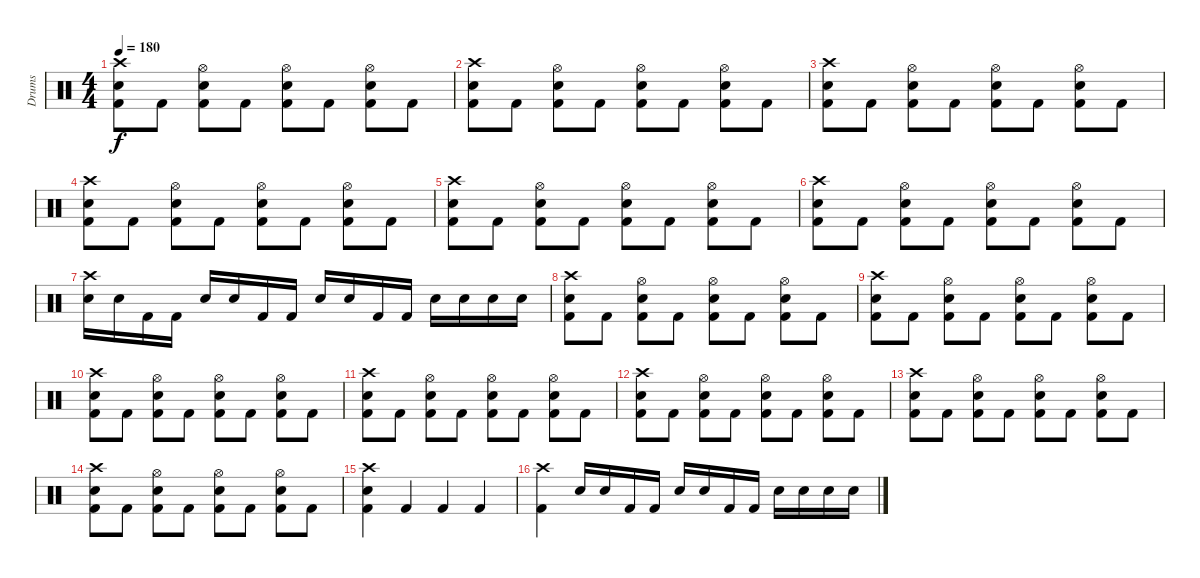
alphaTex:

\track ("Drums" "Drums") {instrument percussion}
\staff {score}
\articulation defaults
\ts (4 4)
\tempo 180
\clef neutral
\ks c
("Crash high (hit)" "Snare (hit) 2" "Kick (hit) 2").8{dy f} "Kick (hit) 2".8 ("Hi-Hat (open)" "Snare (hit) 2" "Kick (hit) 2").8 "Kick (hit) 2".8 ("Hi-Hat (open)" "Snare (hit) 2" "Kick (hit) 2").8 "Kick (hit) 2".8 ("Hi-Hat (open)" "Snare (hit) 2" "Kick (hit) 2").8 "Kick (hit) 2".8 |
("Crash high (hit)" "Snare (hit) 2" "Kick (hit) 2").8 "Kick (hit) 2".8 ("Hi-Hat (open)" "Snare (hit) 2" "Kick (hit) 2").8 "Kick (hit) 2".8 ("Hi-Hat (open)" "Snare (hit) 2" "Kick (hit) 2").8 "Kick (hit) 2".8 ("Hi-Hat (open)" "Snare (hit) 2" "Kick (hit) 2").8 "Kick (hit) 2".8 |
("Crash high (hit)" "Snare (hit) 2" "Kick (hit) 2").8 "Kick (hit) 2".8 ("Hi-Hat (open)" "Snare (hit) 2" "Kick (hit) 2").8 "Kick (hit) 2".8 ("Hi-Hat (open)" "Snare (hit) 2" "Kick (hit) 2").8 "Kick (hit) 2".8 ("Hi-Hat (open)" "Snare (hit) 2" "Kick (hit) 2").8 "Kick (hit) 2".8 |
("Crash high (hit)" "Snare (hit) 2" "Kick (hit) 2").8 "Kick (hit) 2".8 ("Hi-Hat (open)" "Snare (hit) 2" "Kick (hit) 2").8 "Kick (hit) 2".8 ("Hi-Hat (open)" "Snare (hit) 2" "Kick (hit) 2").8 "Kick (hit) 2".8 ("Hi-Hat (open)" "Snare (hit) 2" "Kick (hit) 2").8 "Kick (hit) 2".8 |
("Crash high (hit)" "Snare (hit) 2" "Kick (hit) 2").8 "Kick (hit) 2".8 ("Hi-Hat (open)" "Snare (hit) 2" "Kick (hit) 2").8 "Kick (hit) 2".8 ("Hi-Hat (open)" "Snare (hit) 2" "Kick (hit) 2").8 "Kick (hit) 2".8 ("Hi-Hat (open)" "Snare (hit) 2" "Kick (hit) 2").8 "Kick (hit) 2".8 |
("Crash high (hit)" "Snare (hit) 2" "Kick (hit) 2").8 "Kick (hit) 2".8 ("Hi-Hat (open)" "Snare (hit) 2" "Kick (hit) 2").8 "Kick (hit) 2".8 ("Hi-Hat (open)" "Snare (hit) 2" "Kick (hit) 2").8 "Kick (hit) 2".8 ("Hi-Hat (open)" "Snare (hit) 2" "Kick (hit) 2").8 "Kick (hit) 2".8 |
("Crash high (hit)" "Snare (hit) 2").16 "Snare (hit) 2".16 "Kick (hit) 2".16 "Kick (hit) 2".16 "Snare (hit) 2".16 "Snare (hit) 2".16 "Kick (hit) 2".16 "Kick (hit) 2".16 "Snare (hit) 2".16 "Snare (hit) 2".16 "Kick (hit) 2".16 "Kick (hit) 2".16 "Snare (hit) 2".16 "Snare (hit) 2".16 "Snare (hit) 2".16 "Snare (hit) 2".16 |
("Crash high (hit)" "Snare (hit) 2" "Kick (hit) 2").8 "Kick (hit) 2".8 ("Hi-Hat (open)" "Snare (hit) 2" "Kick (hit) 2").8 "Kick (hit) 2".8 ("Hi-Hat (open)" "Snare (hit) 2" "Kick (hit) 2").8 "Kick (hit) 2".8 ("Hi-Hat (open)" "Snare (hit) 2" "Kick (hit) 2").8 "Kick (hit) 2".8 |
("Crash high (hit)" "Snare (hit) 2" "Kick (hit) 2").8 "Kick (hit) 2".8 ("Hi-Hat (open)" "Snare (hit) 2" "Kick (hit) 2").8 "Kick (hit) 2".8 ("Hi-Hat (open)" "Snare (hit) 2" "Kick (hit) 2").8 "Kick (hit) 2".8 ("Hi-Hat (open)" "Snare (hit) 2" "Kick (hit) 2").8 "Kick (hit) 2".8 |
("Crash high (hit)" "Snare (hit) 2" "Kick (hit) 2").8 "Kick (hit) 2".8 ("Hi-Hat (open)" "Snare (hit) 2" "Kick (hit) 2").8 "Kick (hit) 2".8 ("Hi-Hat (open)" "Snare (hit) 2" "Kick (hit) 2").8 "Kick (hit) 2".8 ("Hi-Hat (open)" "Snare (hit) 2" "Kick (hit) 2").8 "Kick (hit) 2".8 |
("Crash high (hit)" "Snare (hit) 2" "Kick (hit) 2").8 "Kick (hit) 2".8 ("Hi-Hat (open)" "Snare (hit) 2" "Kick (hit) 2").8 "Kick (hit) 2".8 ("Hi-Hat (open)" "Snare (hit) 2" "Kick (hit) 2").8 "Kick (hit) 2".8 ("Hi-Hat (open)" "Snare (hit) 2" "Kick (hit) 2").8 "Kick (hit) 2".8 |
("Crash high (hit)" "Snare (hit) 2" "Kick (hit) 2").8 "Kick (hit) 2".8 ("Hi-Hat (open)" "Snare (hit) 2" "Kick (hit) 2").8 "Kick (hit) 2".8 ("Hi-Hat (open)" "Snare (hit) 2" "Kick (hit) 2").8 "Kick (hit) 2".8 ("Hi-Hat (open)" "Snare (hit) 2" "Kick (hit) 2").8 "Kick (hit) 2".8 |
("Crash high (hit)" "Snare (hit) 2" "Kick (hit) 2").8 "Kick (hit) 2".8 ("Hi-Hat (open)" "Snare (hit) 2" "Kick (hit) 2").8 "Kick (hit) 2".8 ("Hi-Hat (open)" "Snare (hit) 2" "Kick (hit) 2").8 "Kick (hit) 2".8 ("Hi-Hat (open)" "Snare (hit) 2" "Kick (hit) 2").8 "Kick (hit) 2".8 |
("Crash high (hit)" "Snare (hit) 2" "Kick (hit) 2").8 "Kick (hit) 2".8 ("Hi-Hat (open)" "Snare (hit) 2" "Kick (hit) 2").8 "Kick (hit) 2".8 ("Hi-Hat (open)" "Snare (hit) 2" "Kick (hit) 2").8 "Kick (hit) 2".8 ("Hi-Hat (open)" "Snare (hit) 2" "Kick (hit) 2").8 "Kick (hit) 2".8 |
("Crash high (hit)" "Kick (hit) 2" "Snare (hit) 2").4 "Kick (hit) 2".4 "Kick (hit) 2".4 "Kick (hit) 2".4 |
("Kick (hit) 2" "Crash high (hit)").4 "Snare (hit) 2".16 "Snare (hit) 2".16 "Kick (hit) 2".16 "Kick (hit) 2".16 "Snare (hit) 2".16 "Snare (hit) 2".16 "Kick (hit) 2".16 "Kick (hit) 2".16 "Snare (hit) 2".16 "Snare (hit) 2".16 "Snare (hit) 2".16 "Snare (hit) 2".16
